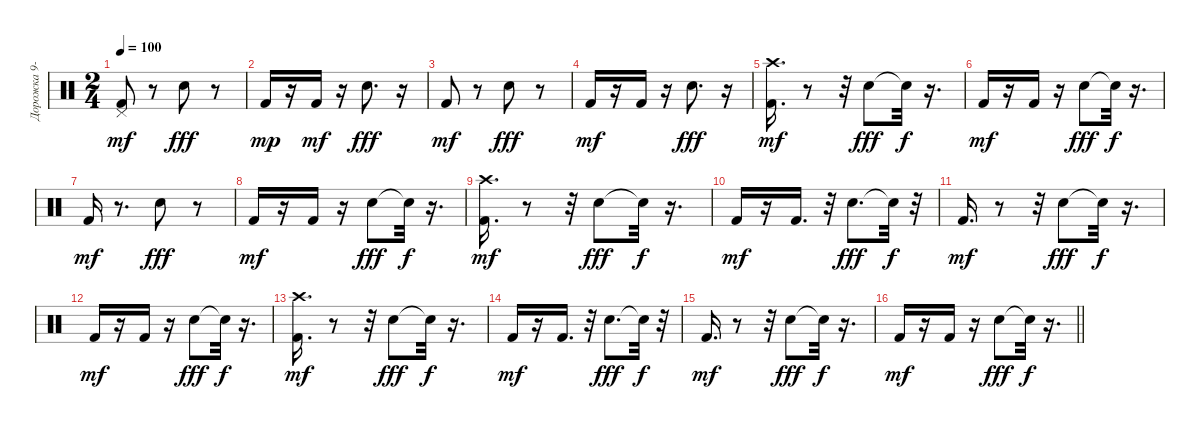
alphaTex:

\track ("Дорожка 9-10" "Дорожка 9-") {instrument percussion}
\staff {score}
\articulation defaults
\ts (2 4)
\tempo 100
\clef neutral
\ks c
("Pedal Hi-Hat (hit)" "Kick (hit) 2").8{dy mf} r.8 "Snare (hit) 2".8{dy fff} r.8 |
"Kick (hit) 2".16{dy mp} r.16 "Kick (hit) 2".16{dy mf} r.16 "Snare (hit) 2".8{d dy fff} r.16 |
"Kick (hit) 2".8{dy mf} r.8 "Snare (hit) 2".8{dy fff} r.8 |
"Kick (hit) 2".16{dy mf} r.16 "Kick (hit) 2".16 r.16 "Snare (hit) 2".8{d dy fff} r.16 |
("Crash high (hit)" "Kick (hit) 2").16{d dy mf} r.8 r.32 "Snare (hit) 2".8{dy fff} "Snare (hit)"{t}.32{dy f} r.16{d} |
"Kick (hit) 2".16{dy mf} r.16 "Kick (hit) 2".16 r.16 "Snare (hit) 2".8{dy fff} "Snare (hit)"{t}.32{dy f} r.16{d} |
"Kick (hit) 2".16{dy mf} r.8{d} "Snare (hit) 2".8{dy fff} r.8 |
"Kick (hit) 2".16{dy mf} r.16 "Kick (hit) 2".16 r.16 "Snare (hit) 2".8{dy fff} "Snare (hit)"{t}.32{dy f} r.16{d} |
("Crash high (hit)" "Kick (hit) 2").16{d dy mf} r.8 r.32 "Snare (hit) 2".8{dy fff} "Snare (hit)"{t}.32{dy f} r.16{d} |
"Kick (hit) 2".16{dy mf} r.16 "Kick (hit) 2".16{d} r.32 "Snare (hit) 2".8{d dy fff} "Snare (hit)"{t}.32{dy f} r.32 |
"Kick (hit) 2".16{d dy mf} r.8 r.32 "Snare (hit) 2".8{dy fff} "Snare (hit)"{t}.32{dy f} r.16{d} |
"Kick (hit) 2".16{dy mf} r.16 "Kick (hit) 2".16 r.16 "Snare (hit) 2".8{dy fff} "Snare (hit)"{t}.32{dy f} r.16{d} |
("Crash high (hit)" "Kick (hit) 2").16{d dy mf} r.8 r.32 "Snare (hit) 2".8{dy fff} "Snare (hit)"{t}.32{dy f} r.16{d} |
"Kick (hit) 2".16{dy mf} r.16 "Kick (hit) 2".16{d} r.32 "Snare (hit) 2".8{d dy fff} "Snare (hit)"{t}.32{dy f} r.32 |
"Kick (hit) 2".16{d dy mf} r.8 r.32 "Snare (hit) 2".8{dy fff} "Snare (hit)"{t}.32{dy f} r.16{d} |
\barLineRight lightlight "Kick (hit) 2".16{dy mf}
r.16 "Kick (hit) 2".16 r.16 "Snare (hit) 2".8{dy fff} "Snare (hit)"{t}.32{dy f} r.16{d}
